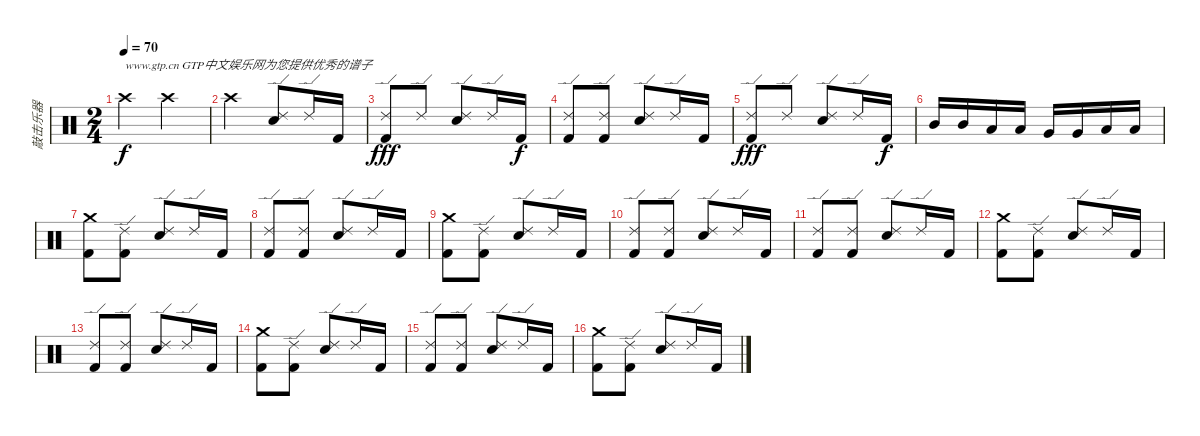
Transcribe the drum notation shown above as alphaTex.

\track ("敲击乐器" "敲击乐器") {instrument percussion}
\staff {score}
\articulation defaults
\ts (2 4)
\tempo 70
\clef neutral
\ks c "Crash high (hit)".4{txt "www.gtp.cn GTP中文娱乐网为您提供优秀的谱子" dy f} "Crash high (hit)".4
|
"Crash high (hit)".4 ("Ride (edge) 2" "Snare (hit) 2").8 "Ride (edge) 2".16 "Kick (hit) 2".16 |
("Ride (edge) 2" "Kick (hit) 2").8{dy fff} "Ride (edge) 2".8 ("Ride (edge) 2" "Snare (hit) 2").8 "Ride (edge) 2".16 "Kick (hit) 2".16{dy f} |
("Ride (edge) 2" "Kick (hit) 2").8 ("Ride (edge) 2" "Kick (hit) 2").8 ("Ride (edge) 2" "Snare (hit) 2").8 "Ride (edge) 2".16 "Kick (hit) 2".16 |
("Ride (edge) 2" "Kick (hit) 2").8{dy fff} "Ride (edge) 2".8 ("Ride (edge) 2" "Snare (hit) 2").8 "Ride (edge) 2".16 "Kick (hit) 2".16{dy f} |
"Mid Tom (hit)".16 "Mid Tom (hit)".16 "Low Tom (hit)".16 "Low Tom (hit)".16 "Very Low Tom (hit)".16 "Very Low Tom (hit)".16 "Low Floor Tom (hit)".16 "Low Floor Tom (hit)".16 |
("Crash medium (hit)" "Kick (hit) 2").8 ("Ride (edge) 2" "Kick (hit) 2").8 ("Ride (edge) 2" "Snare (hit) 2").8 "Ride (edge) 2".16 "Kick (hit) 2".16 |
("Ride (edge) 2" "Kick (hit) 2").8 ("Ride (edge) 2" "Kick (hit) 2").8 ("Ride (edge) 2" "Snare (hit) 2").8 "Ride (edge) 2".16 "Kick (hit) 2".16 |
("Crash medium (hit)" "Kick (hit) 2").8 ("Ride (edge) 2" "Kick (hit) 2").8 ("Ride (edge) 2" "Snare (hit) 2").8 "Ride (edge) 2".16 "Kick (hit) 2".16 |
("Ride (edge) 2" "Kick (hit) 2").8 ("Ride (edge) 2" "Kick (hit) 2").8 ("Ride (edge) 2" "Snare (hit) 2").8 "Ride (edge) 2".16 "Kick (hit) 2".16 |
("Ride (edge) 2" "Kick (hit) 2").8 ("Ride (edge) 2" "Kick (hit) 2").8 ("Ride (edge) 2" "Snare (hit) 2").8 "Ride (edge) 2".16 "Kick (hit) 2".16 |
("Crash medium (hit)" "Kick (hit) 2").8 ("Ride (edge) 2" "Kick (hit) 2").8 ("Ride (edge) 2" "Snare (hit) 2").8 "Ride (edge) 2".16 "Kick (hit) 2".16 |
("Ride (edge) 2" "Kick (hit) 2").8 ("Ride (edge) 2" "Kick (hit) 2").8 ("Ride (edge) 2" "Snare (hit) 2").8 "Ride (edge) 2".16 "Kick (hit) 2".16 |
("Crash medium (hit)" "Kick (hit) 2").8 ("Ride (edge) 2" "Kick (hit) 2").8 ("Ride (edge) 2" "Snare (hit) 2").8 "Ride (edge) 2".16 "Kick (hit) 2".16 |
("Ride (edge) 2" "Kick (hit) 2").8 ("Ride (edge) 2" "Kick (hit) 2").8 ("Ride (edge) 2" "Snare (hit) 2").8 "Ride (edge) 2".16 "Kick (hit) 2".16 |
("Crash medium (hit)" "Kick (hit) 2").8 ("Ride (edge) 2" "Kick (hit) 2").8 ("Ride (edge) 2" "Snare (hit) 2").8 "Ride (edge) 2".16 "Kick (hit) 2".16
